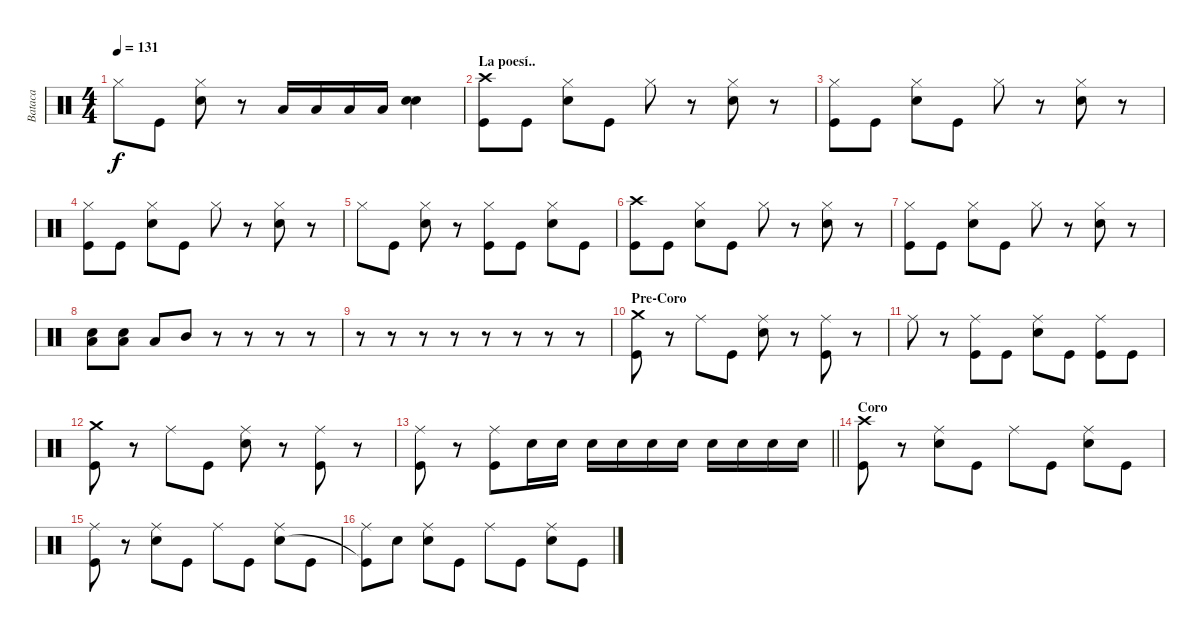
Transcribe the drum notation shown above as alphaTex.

\track ("Bataca" "Bataca") {instrument percussion}
\staff {score}
\articulation defaults
\ts (4 4)
\tempo 131
\clef neutral
\ks c "Hi-Hat (closed)".8{dy f} "Kick (hit)".8
("Hi-Hat (closed)" "Snare (hit) 2").8 r.8 "Low Tom (hit)".16 "Low Tom (hit)".16 "Low Tom (hit)".16 "Low Tom (hit)".16 ("Snare (hit) 2" "Snare (hit) 2").4{bd 60} |
\section ("" "La poesí..")
("Crash high (hit)" "Kick (hit)").8 "Kick (hit)".8 ("Hi-Hat (closed)" "Snare (hit) 2").8 "Kick (hit)".8 "Hi-Hat (closed)".8 r.8 ("Hi-Hat (closed)" "Snare (hit) 2").8 r.8 |
("Hi-Hat (closed)" "Kick (hit)").8 "Kick (hit)".8 ("Hi-Hat (closed)" "Snare (hit) 2").8 "Kick (hit)".8 "Hi-Hat (closed)".8 r.8 ("Hi-Hat (closed)" "Snare (hit) 2").8 r.8 |
("Hi-Hat (closed)" "Kick (hit)").8 "Kick (hit)".8 ("Hi-Hat (closed)" "Snare (hit) 2").8 "Kick (hit)".8 "Hi-Hat (closed)".8 r.8 ("Hi-Hat (closed)" "Snare (hit) 2").8 r.8 |
"Hi-Hat (closed)".8 "Kick (hit)".8 ("Hi-Hat (closed)" "Snare (hit) 2").8 r.8 ("Hi-Hat (closed)" "Kick (hit)").8 "Kick (hit)".8 ("Hi-Hat (closed)" "Snare (hit) 2").8 "Kick (hit)".8 |
("Crash high (hit)" "Kick (hit)").8 "Kick (hit)".8 ("Hi-Hat (closed)" "Snare (hit) 2").8 "Kick (hit)".8 "Hi-Hat (closed)".8 r.8 ("Hi-Hat (closed)" "Snare (hit) 2").8 r.8 |
("Hi-Hat (closed)" "Kick (hit)").8 "Kick (hit)".8 ("Hi-Hat (closed)" "Snare (hit) 2").8 "Kick (hit)".8 "Hi-Hat (closed)".8 r.8 ("Hi-Hat (closed)" "Snare (hit) 2").8 r.8 |
("Low Tom (hit)" "Snare (hit) 2").8{bd 60} ("Low Tom (hit)" "Snare (hit) 2").8{bd 60} "Low Tom (hit)".8 "Mid Tom (hit)".8 r.8 r.8 r.8 r.8 |
r.8 r.8 r.8 r.8 r.8 r.8 r.8 r.8 |
\section ("" "Pre-Coro")
("Crash medium (hit)" "Kick (hit)").8 r.8 "Ride (middle)".8 "Kick (hit)".8 ("Ride (middle)" "Snare (hit) 2").8 r.8 ("Ride (middle)" "Kick (hit)").8 r.8 |
"Ride (middle)".8 r.8 ("Ride (middle)" "Kick (hit)").8 "Kick (hit)".8 ("Ride (middle)" "Snare (hit) 2").8 "Kick (hit)".8 ("Ride (middle)" "Kick (hit)").8 "Kick (hit)".8 |
("Crash medium (hit)" "Kick (hit)").8 r.8 "Ride (middle)".8 "Kick (hit)".8 ("Ride (middle)" "Snare (hit) 2").8 r.8 ("Ride (middle)" "Kick (hit)").8 r.8 |
\barLineRight lightlight
("Ride (middle)" "Kick (hit)").8 r.8 ("Ride (middle)" "Kick (hit)").8 "Snare (hit) 2".16 "Snare (hit) 2".16 "Snare (hit) 2".16 "Snare (hit) 2".16 "Snare (hit) 2".16 "Snare (hit) 2".16 "Snare (hit) 2".16 "Snare (hit) 2".16 "Snare (hit) 2".16 "Snare (hit) 2".16 |
\section ("" "Coro")
("Crash high (hit)" "Kick (hit)").8 r.8 ("Ride (middle)" "Snare (hit) 2").8 "Kick (hit)".8 "Ride (middle)".8 "Kick (hit)".8 ("Ride (middle)" "Snare (hit) 2").8 "Kick (hit)".8 |
("Ride (middle)" "Kick (hit)").8 r.8 ("Ride (middle)" "Snare (hit) 2").8 "Kick (hit)".8 "Ride (middle)".8 "Kick (hit)".8 ("Ride (middle)" "Snare (hit) 2").8 "Kick (hit)".8 |
("Ride (middle)" "Kick (hit)"{t}).8 "Snare (hit)".8 ("Ride (middle)" "Snare (hit) 2").8 "Kick (hit)".8 "Ride (middle)".8 "Kick (hit)".8 ("Ride (middle)" "Snare (hit) 2").8 "Kick (hit)".8
